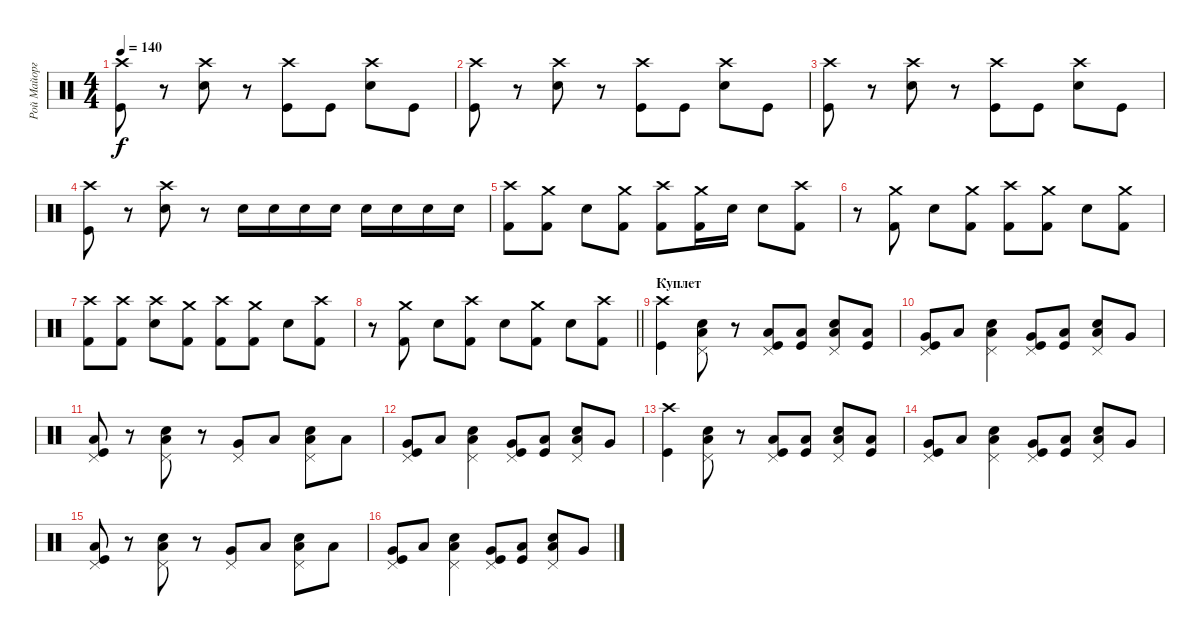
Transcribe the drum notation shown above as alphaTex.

\track ("Рой Майорга" "Рой Майорг") {instrument percussion}
\staff {score}
\articulation defaults
\ts (4 4)
\tempo 140
\clef neutral
\ks c
("Crash high (hit)" "Kick (hit)").8{dy f} r.8 ("Crash high (hit)" "Snare (hit) 2").8 r.8 ("Crash high (hit)" "Kick (hit)").8 "Kick (hit)".8 ("Crash high (hit)" "Snare (hit) 2").8 "Kick (hit)".8 |
("Crash high (hit)" "Kick (hit)").8 r.8 ("Crash high (hit)" "Snare (hit) 2").8 r.8 ("Crash high (hit)" "Kick (hit)").8 "Kick (hit)".8 ("Crash high (hit)" "Snare (hit) 2").8 "Kick (hit)".8 |
("Crash high (hit)" "Kick (hit)").8 r.8 ("Crash high (hit)" "Snare (hit) 2").8 r.8 ("Crash high (hit)" "Kick (hit)").8 "Kick (hit)".8 ("Crash high (hit)" "Snare (hit) 2").8 "Kick (hit)".8 |
("Crash high (hit)" "Kick (hit)").8 r.8 ("Crash high (hit)" "Snare (hit) 2").8 r.8 "Snare (hit) 2".16 "Snare (hit) 2".16 "Snare (hit) 2".16 "Snare (hit) 2".16 "Snare (hit) 2".16 "Snare (hit) 2".16 "Snare (hit) 2".16 "Snare (hit) 2".16 |
("Crash high (hit)" "Kick (hit) 2").8 ("Crash medium (hit)" "Kick (hit) 2").8 "Snare (hit) 2".8 ("Crash medium (hit)" "Kick (hit) 2").8 ("Crash high (hit)" "Kick (hit) 2").8 ("Crash medium (hit)" "Kick (hit) 2").16 "Snare (hit) 2".16 "Snare (hit) 2".8 ("Crash high (hit)" "Kick (hit) 2").8 |
r.8 ("Crash medium (hit)" "Kick (hit) 2").8 "Snare (hit) 2".8 ("Crash medium (hit)" "Kick (hit) 2").8 ("Crash high (hit)" "Kick (hit) 2").8 ("Crash medium (hit)" "Kick (hit) 2").8 "Snare (hit) 2".8 ("Crash medium (hit)" "Kick (hit) 2").8 |
("Crash high (hit)" "Kick (hit) 2").8 ("Crash high (hit)" "Kick (hit) 2").8 ("Crash high (hit)" "Snare (hit) 2").8 ("Crash medium (hit)" "Kick (hit) 2").8 ("Crash high (hit)" "Kick (hit) 2").8 ("Crash medium (hit)" "Kick (hit) 2").8 "Snare (hit) 2".8 ("Crash high (hit)" "Kick (hit) 2").8 |
\barLineRight lightlight
r.8 ("Crash medium (hit)" "Kick (hit) 2").8 "Snare (hit) 2".8 ("Crash high (hit)" "Kick (hit) 2").8 "Snare (hit) 2".8 ("Crash medium (hit)" "Kick (hit) 2").8 "Snare (hit) 2".8 ("Crash high (hit)" "Kick (hit) 2").8 |
\section ("" "Куплет")
("Crash high (hit)" "Kick (hit)").4 ("Pedal Hi-Hat (hit)" "Low Tom (hit)" "Snare (hit) 2").8 r.8 ("Pedal Hi-Hat (hit)" "Low Tom (hit)" "Kick (hit)").8 ("Low Floor Tom (hit)" "Kick (hit)").8 ("Pedal Hi-Hat (hit)" "Low Tom (hit)" "Snare (hit) 2").8 ("Low Floor Tom (hit)" "Kick (hit)").8 |
("Pedal Hi-Hat (hit)" "Very Low Tom (hit)" "Kick (hit)").8 "Low Tom (hit)".8 ("Pedal Hi-Hat (hit)" "Low Tom (hit)" "Snare (hit) 2").4 ("Pedal Hi-Hat (hit)" "Very Low Tom (hit)" "Kick (hit)").8 ("Low Tom (hit)" "Kick (hit)").8 ("Pedal Hi-Hat (hit)" "Low Tom (hit)" "Snare (hit) 2").8 "Very Low Tom (hit)".8 |
("Pedal Hi-Hat (hit)" "Low Tom (hit)" "Kick (hit)").8 r.8 ("Pedal Hi-Hat (hit)" "Low Tom (hit)" "Snare (hit) 2").8 r.8 ("Pedal Hi-Hat (hit)" "Very Low Tom (hit)").8 "Low Tom (hit)".8 ("Pedal Hi-Hat (hit)" "Low Tom (hit)" "Snare (hit) 2").8 "Low Floor Tom (hit)".8 |
("Pedal Hi-Hat (hit)" "Very Low Tom (hit)" "Kick (hit)").8 "Low Tom (hit)".8 ("Pedal Hi-Hat (hit)" "Low Tom (hit)" "Snare (hit) 2").4 ("Pedal Hi-Hat (hit)" "Very Low Tom (hit)" "Kick (hit)").8 ("Low Tom (hit)" "Kick (hit)").8 ("Pedal Hi-Hat (hit)" "Low Tom (hit)" "Snare (hit) 2").8 "Very Low Tom (hit)".8 |
("Crash high (hit)" "Kick (hit)").4 ("Pedal Hi-Hat (hit)" "Low Tom (hit)" "Snare (hit) 2").8 r.8 ("Pedal Hi-Hat (hit)" "Low Tom (hit)" "Kick (hit)").8 ("Low Floor Tom (hit)" "Kick (hit)").8 ("Pedal Hi-Hat (hit)" "Low Tom (hit)" "Snare (hit) 2").8 ("Low Floor Tom (hit)" "Kick (hit)").8 |
("Pedal Hi-Hat (hit)" "Very Low Tom (hit)" "Kick (hit)").8 "Low Tom (hit)".8 ("Pedal Hi-Hat (hit)" "Low Tom (hit)" "Snare (hit) 2").4 ("Pedal Hi-Hat (hit)" "Very Low Tom (hit)" "Kick (hit)").8 ("Low Tom (hit)" "Kick (hit)").8 ("Pedal Hi-Hat (hit)" "Low Tom (hit)" "Snare (hit) 2").8 "Very Low Tom (hit)".8 |
("Pedal Hi-Hat (hit)" "Low Tom (hit)" "Kick (hit)").8 r.8 ("Pedal Hi-Hat (hit)" "Low Tom (hit)" "Snare (hit) 2").8 r.8 ("Pedal Hi-Hat (hit)" "Very Low Tom (hit)").8 "Low Tom (hit)".8 ("Pedal Hi-Hat (hit)" "Low Tom (hit)" "Snare (hit) 2").8 "Low Floor Tom (hit)".8 |
("Pedal Hi-Hat (hit)" "Very Low Tom (hit)" "Kick (hit)").8 "Low Tom (hit)".8 ("Pedal Hi-Hat (hit)" "Low Tom (hit)" "Snare (hit) 2").4 ("Pedal Hi-Hat (hit)" "Very Low Tom (hit)" "Kick (hit)").8 ("Low Tom (hit)" "Kick (hit)").8 ("Pedal Hi-Hat (hit)" "Low Tom (hit)" "Snare (hit) 2").8 "Very Low Tom (hit)".8
